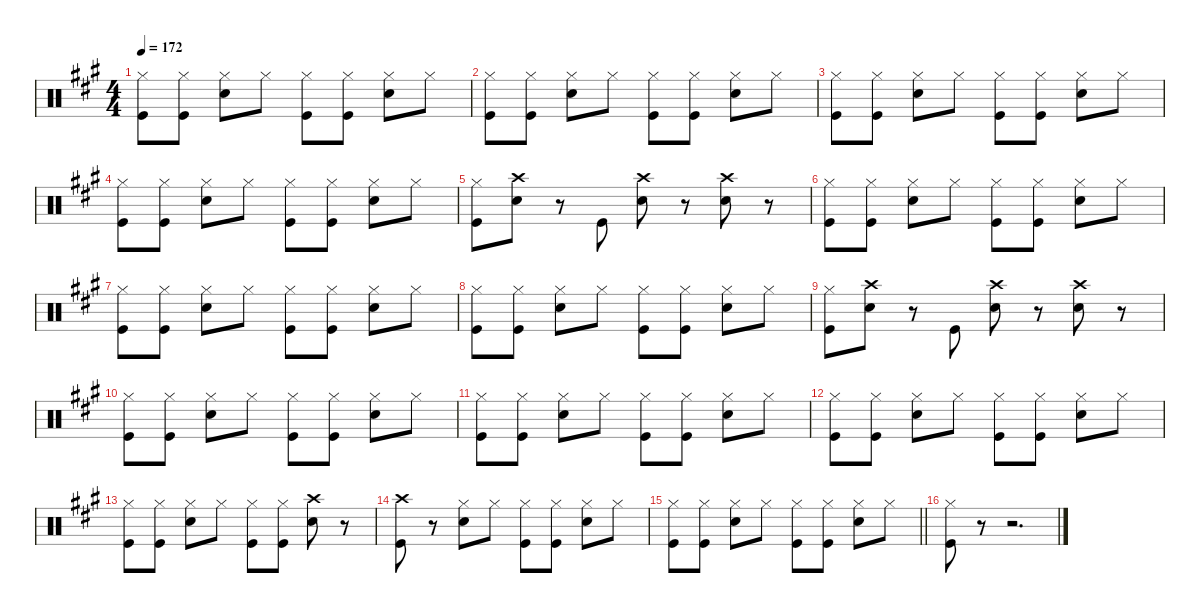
\defaultSystemsLayout 4
\hideDynamics
\bracketExtendMode nobrackets
\singleTrackTrackNamePolicy hidden
\multiTrackTrackNamePolicy hidden
\firstSystemTrackNameMode fullname
\firstSystemTrackNameOrientation horizontal
\otherSystemsTrackNameOrientation horizontal
\track ("Percussion" "drm.") {instrument percussion}
\staff {score}
\articulation defaults
\ts (4 4)
\tempo 172
\clef neutral
\ks a
("Hi-Hat (closed)"{acc forcenatural} "Kick (hit)"{acc forcenatural}).8{dy f beam Down} ("Hi-Hat (closed)"{acc forcenatural} "Kick (hit)"{acc forcenatural}).8{beam Down} ("Hi-Hat (closed)"{acc forcenatural} "Snare (hit) 2"{acc forcenatural}).8{beam Down} "Hi-Hat (closed)"{acc forcenatural}.8{beam Down} ("Hi-Hat (closed)"{acc forcenatural} "Kick (hit)"{acc forcenatural}).8{beam Down} ("Hi-Hat (closed)"{acc forcenatural} "Kick (hit)"{acc forcenatural}).8{beam Down} ("Hi-Hat (closed)"{acc forcenatural} "Snare (hit) 2"{acc forcenatural}).8{beam Down} "Hi-Hat (closed)"{acc forcenatural}.8{beam Down} |
("Hi-Hat (closed)"{acc forcenatural} "Kick (hit)"{acc forcenatural}).8{beam Down} ("Hi-Hat (closed)"{acc forcenatural} "Kick (hit)"{acc forcenatural}).8{beam Down} ("Hi-Hat (closed)"{acc forcenatural} "Snare (hit) 2"{acc forcenatural}).8{beam Down} "Hi-Hat (closed)"{acc forcenatural}.8{beam Down} ("Hi-Hat (closed)"{acc forcenatural} "Kick (hit)"{acc forcenatural}).8{beam Down} ("Hi-Hat (closed)"{acc forcenatural} "Kick (hit)"{acc forcenatural}).8{beam Down} ("Hi-Hat (closed)"{acc forcenatural} "Snare (hit) 2"{acc forcenatural}).8{beam Down} "Hi-Hat (closed)"{acc forcenatural}.8{beam Down} |
("Hi-Hat (closed)"{acc forcenatural} "Kick (hit)"{acc forcenatural}).8{beam Down} ("Hi-Hat (closed)"{acc forcenatural} "Kick (hit)"{acc forcenatural}).8{beam Down} ("Hi-Hat (closed)"{acc forcenatural} "Snare (hit) 2"{acc forcenatural}).8{beam Down} "Hi-Hat (closed)"{acc forcenatural}.8{beam Down} ("Hi-Hat (closed)"{acc forcenatural} "Kick (hit)"{acc forcenatural}).8{beam Down} ("Hi-Hat (closed)"{acc forcenatural} "Kick (hit)"{acc forcenatural}).8{beam Down} ("Hi-Hat (closed)"{acc forcenatural} "Snare (hit) 2"{acc forcenatural}).8{beam Down} "Hi-Hat (closed)"{acc forcenatural}.8{beam Down} |
("Hi-Hat (closed)"{acc forcenatural} "Kick (hit)"{acc forcenatural}).8{beam Down} ("Hi-Hat (closed)"{acc forcenatural} "Kick (hit)"{acc forcenatural}).8{beam Down} ("Hi-Hat (closed)"{acc forcenatural} "Snare (hit) 2"{acc forcenatural}).8{beam Down} "Hi-Hat (closed)"{acc forcenatural}.8{beam Down} ("Hi-Hat (closed)"{acc forcenatural} "Kick (hit)"{acc forcenatural}).8{beam Down} ("Hi-Hat (closed)"{acc forcenatural} "Kick (hit)"{acc forcenatural}).8{beam Down} ("Hi-Hat (closed)"{acc forcenatural} "Snare (hit) 2"{acc forcenatural}).8{beam Down} "Hi-Hat (closed)"{acc forcenatural}.8{beam Down} |
("Hi-Hat (closed)"{acc forcenatural} "Kick (hit)"{acc forcenatural}).8{beam Down} ("Crash high (hit)"{acc forcenatural} "Snare (hit) 2"{acc forcenatural}).8{beam Down} r.8{beam Down} "Kick (hit)"{acc forcenatural}.8{beam Up} ("Crash high (hit)"{acc forcenatural} "Snare (hit) 2"{acc forcenatural}).8{beam Down} r.8{beam Down} ("Crash high (hit)"{acc forcenatural} "Snare (hit) 2"{acc forcenatural}).8{beam Down} r.8{beam Down} |
("Hi-Hat (closed)"{acc forcenatural} "Kick (hit)"{acc forcenatural}).8{beam Down} ("Hi-Hat (closed)"{acc forcenatural} "Kick (hit)"{acc forcenatural}).8{beam Down} ("Hi-Hat (closed)"{acc forcenatural} "Snare (hit) 2"{acc forcenatural}).8{beam Down} "Hi-Hat (closed)"{acc forcenatural}.8{beam Down} ("Hi-Hat (closed)"{acc forcenatural} "Kick (hit)"{acc forcenatural}).8{beam Down} ("Hi-Hat (closed)"{acc forcenatural} "Kick (hit)"{acc forcenatural}).8{beam Down} ("Hi-Hat (closed)"{acc forcenatural} "Snare (hit) 2"{acc forcenatural}).8{beam Down} "Hi-Hat (closed)"{acc forcenatural}.8{beam Down} |
("Hi-Hat (closed)"{acc forcenatural} "Kick (hit)"{acc forcenatural}).8{beam Down} ("Hi-Hat (closed)"{acc forcenatural} "Kick (hit)"{acc forcenatural}).8{beam Down} ("Hi-Hat (closed)"{acc forcenatural} "Snare (hit) 2"{acc forcenatural}).8{beam Down} "Hi-Hat (closed)"{acc forcenatural}.8{beam Down} ("Hi-Hat (closed)"{acc forcenatural} "Kick (hit)"{acc forcenatural}).8{beam Down} ("Hi-Hat (closed)"{acc forcenatural} "Kick (hit)"{acc forcenatural}).8{beam Down} ("Hi-Hat (closed)"{acc forcenatural} "Snare (hit) 2"{acc forcenatural}).8{beam Down} "Hi-Hat (closed)"{acc forcenatural}.8{beam Down} |
("Hi-Hat (closed)"{acc forcenatural} "Kick (hit)"{acc forcenatural}).8{beam Down} ("Hi-Hat (closed)"{acc forcenatural} "Kick (hit)"{acc forcenatural}).8{beam Down} ("Hi-Hat (closed)"{acc forcenatural} "Snare (hit) 2"{acc forcenatural}).8{beam Down} "Hi-Hat (closed)"{acc forcenatural}.8{beam Down} ("Hi-Hat (closed)"{acc forcenatural} "Kick (hit)"{acc forcenatural}).8{beam Down} ("Hi-Hat (closed)"{acc forcenatural} "Kick (hit)"{acc forcenatural}).8{beam Down} ("Hi-Hat (closed)"{acc forcenatural} "Snare (hit) 2"{acc forcenatural}).8{beam Down} "Hi-Hat (closed)"{acc forcenatural}.8{beam Down} |
("Hi-Hat (closed)"{acc forcenatural} "Kick (hit)"{acc forcenatural}).8{beam Down} ("Crash high (hit)"{acc forcenatural} "Snare (hit) 2"{acc forcenatural}).8{beam Down} r.8{beam Down} "Kick (hit)"{acc forcenatural}.8{beam Up} ("Crash high (hit)"{acc forcenatural} "Snare (hit) 2"{acc forcenatural}).8{beam Down} r.8{beam Down} ("Crash high (hit)"{acc forcenatural} "Snare (hit) 2"{acc forcenatural}).8{beam Down} r.8{beam Down} |
("Hi-Hat (closed)"{acc forcenatural} "Kick (hit)"{acc forcenatural}).8{beam Down} ("Hi-Hat (closed)"{acc forcenatural} "Kick (hit)"{acc forcenatural}).8{beam Down} ("Hi-Hat (closed)"{acc forcenatural} "Snare (hit) 2"{acc forcenatural}).8{beam Down} "Hi-Hat (closed)"{acc forcenatural}.8{beam Down} ("Hi-Hat (closed)"{acc forcenatural} "Kick (hit)"{acc forcenatural}).8{beam Down} ("Hi-Hat (closed)"{acc forcenatural} "Kick (hit)"{acc forcenatural}).8{beam Down} ("Hi-Hat (closed)"{acc forcenatural} "Snare (hit) 2"{acc forcenatural}).8{beam Down} "Hi-Hat (closed)"{acc forcenatural}.8{beam Down} |
("Hi-Hat (closed)"{acc forcenatural} "Kick (hit)"{acc forcenatural}).8{beam Down} ("Hi-Hat (closed)"{acc forcenatural} "Kick (hit)"{acc forcenatural}).8{beam Down} ("Hi-Hat (closed)"{acc forcenatural} "Snare (hit) 2"{acc forcenatural}).8{beam Down} "Hi-Hat (closed)"{acc forcenatural}.8{beam Down} ("Hi-Hat (closed)"{acc forcenatural} "Kick (hit)"{acc forcenatural}).8{beam Down} ("Hi-Hat (closed)"{acc forcenatural} "Kick (hit)"{acc forcenatural}).8{beam Down} ("Hi-Hat (closed)"{acc forcenatural} "Snare (hit) 2"{acc forcenatural}).8{beam Down} "Hi-Hat (closed)"{acc forcenatural}.8{beam Down} |
("Hi-Hat (closed)"{acc forcenatural} "Kick (hit)"{acc forcenatural}).8{beam Down} ("Hi-Hat (closed)"{acc forcenatural} "Kick (hit)"{acc forcenatural}).8{beam Down} ("Hi-Hat (closed)"{acc forcenatural} "Snare (hit) 2"{acc forcenatural}).8{beam Down} "Hi-Hat (closed)"{acc forcenatural}.8{beam Down} ("Hi-Hat (closed)"{acc forcenatural} "Kick (hit)"{acc forcenatural}).8{beam Down} ("Hi-Hat (closed)"{acc forcenatural} "Kick (hit)"{acc forcenatural}).8{beam Down} ("Hi-Hat (closed)"{acc forcenatural} "Snare (hit) 2"{acc forcenatural}).8{beam Down} "Hi-Hat (closed)"{acc forcenatural}.8{beam Down} |
("Hi-Hat (closed)"{acc forcenatural} "Kick (hit)"{acc forcenatural}).8{beam Down} ("Hi-Hat (closed)"{acc forcenatural} "Kick (hit)"{acc forcenatural}).8{beam Down} ("Hi-Hat (closed)"{acc forcenatural} "Snare (hit) 2"{acc forcenatural}).8{beam Down} "Hi-Hat (closed)"{acc forcenatural}.8{beam Down} ("Hi-Hat (closed)"{acc forcenatural} "Kick (hit)"{acc forcenatural}).8{beam Down} ("Hi-Hat (closed)"{acc forcenatural} "Kick (hit)"{acc forcenatural}).8{beam Down} ("Crash high (hit)"{acc forcenatural} "Snare (hit) 2"{acc forcenatural}).8{beam Down} r.8{beam Down} |
("Crash high (hit)"{acc forcenatural} "Kick (hit)"{acc forcenatural}).8{beam Down} r.8{beam Down} ("Hi-Hat (closed)"{acc forcenatural} "Snare (hit) 2"{acc forcenatural}).8{beam Down} "Hi-Hat (closed)"{acc forcenatural}.8{beam Down} ("Hi-Hat (closed)"{acc forcenatural} "Kick (hit)"{acc forcenatural}).8{beam Down} ("Hi-Hat (closed)"{acc forcenatural} "Kick (hit)"{acc forcenatural}).8{beam Down} ("Hi-Hat (closed)"{acc forcenatural} "Snare (hit) 2"{acc forcenatural}).8{beam Down} "Hi-Hat (closed)"{acc forcenatural}.8{beam Down} |
\barLineRight lightlight
("Hi-Hat (closed)"{acc forcenatural} "Kick (hit)"{acc forcenatural}).8{beam Down} ("Hi-Hat (closed)"{acc forcenatural} "Kick (hit)"{acc forcenatural}).8{beam Down} ("Hi-Hat (closed)"{acc forcenatural} "Snare (hit) 2"{acc forcenatural}).8{beam Down} "Hi-Hat (closed)"{acc forcenatural}.8{beam Down} ("Hi-Hat (closed)"{acc forcenatural} "Kick (hit)"{acc forcenatural}).8{beam Down} ("Hi-Hat (closed)"{acc forcenatural} "Kick (hit)"{acc forcenatural}).8{beam Down} ("Hi-Hat (closed)"{acc forcenatural} "Snare (hit) 2"{acc forcenatural}).8{beam Down} "Hi-Hat (closed)"{acc forcenatural}.8{beam Down} |
("Hi-Hat (closed)"{acc forcenatural} "Kick (hit)"{acc forcenatural}).8{beam Down} r.8{beam Down} r.2{d beam Down}
